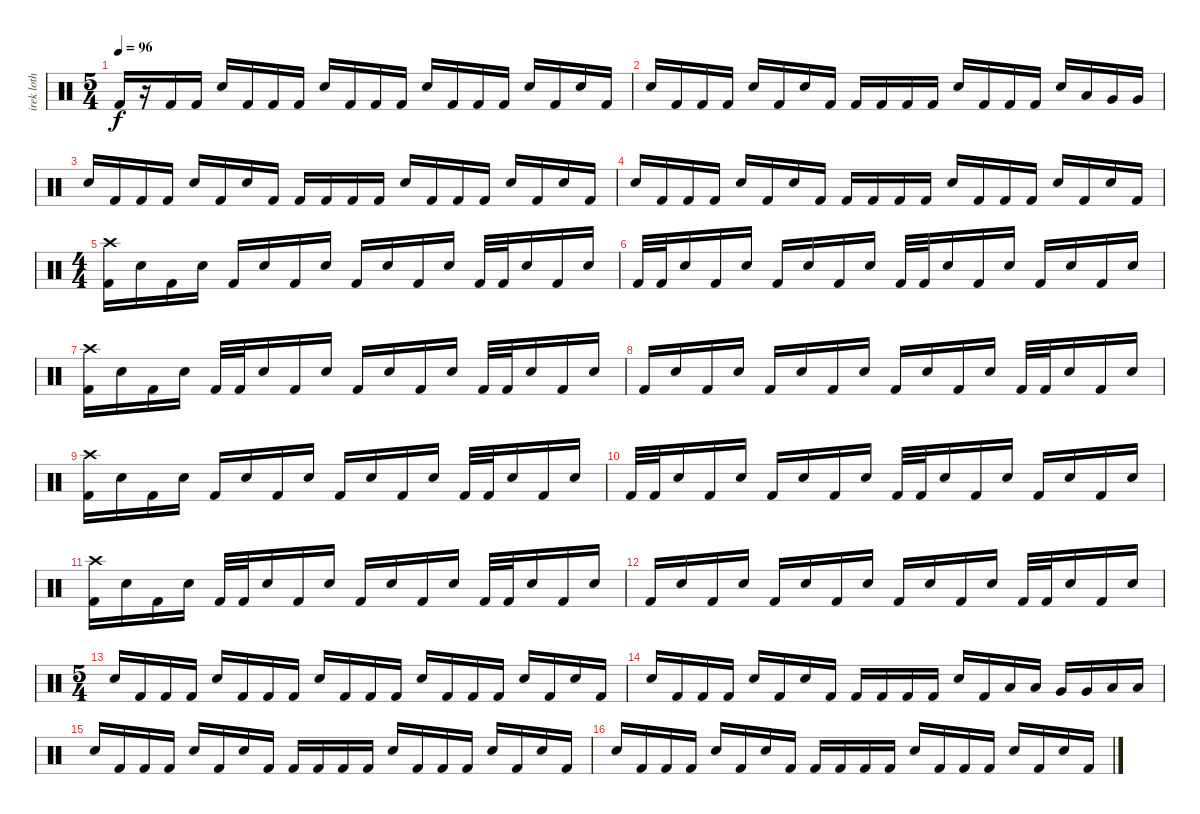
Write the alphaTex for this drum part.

\track ("irek loth" "irek loth") {instrument percussion}
\staff {score}
\articulation defaults
\ts (5 4)
\tempo 96
\clef neutral
\ks c "Kick (hit) 2".16{dy f}
r.16 "Kick (hit) 2".16 "Kick (hit) 2".16 "Snare (hit) 2".16 "Kick (hit) 2".16 "Kick (hit) 2".16 "Kick (hit) 2".16 "Snare (hit) 2".16 "Kick (hit) 2".16 "Kick (hit) 2".16 "Kick (hit) 2".16 "Snare (hit) 2".16 "Kick (hit) 2".16 "Kick (hit) 2".16 "Kick (hit) 2".16 "Snare (hit) 2".16 "Kick (hit) 2".16 "Snare (hit) 2".16 "Kick (hit) 2".16 |
"Snare (hit) 2".16 "Kick (hit) 2".16 "Kick (hit) 2".16 "Kick (hit) 2".16 "Snare (hit) 2".16 "Kick (hit) 2".16 "Snare (hit) 2".16 "Kick (hit) 2".16 "Kick (hit) 2".16 "Kick (hit) 2".16 "Kick (hit) 2".16 "Kick (hit) 2".16 "Snare (hit) 2".16 "Kick (hit) 2".16 "Kick (hit) 2".16 "Kick (hit) 2".16 "Snare (hit) 2".16 "Low Tom (hit)".16 "Very Low Tom (hit)".16 "Very Low Tom (hit)".16 |
"Snare (hit) 2".16 "Kick (hit) 2".16 "Kick (hit) 2".16 "Kick (hit) 2".16 "Snare (hit) 2".16 "Kick (hit) 2".16 "Snare (hit) 2".16 "Kick (hit) 2".16 "Kick (hit) 2".16 "Kick (hit) 2".16 "Kick (hit) 2".16 "Kick (hit) 2".16 "Snare (hit) 2".16 "Kick (hit) 2".16 "Kick (hit) 2".16 "Kick (hit) 2".16 "Snare (hit) 2".16 "Kick (hit) 2".16 "Snare (hit) 2".16 "Kick (hit) 2".16 |
"Snare (hit) 2".16 "Kick (hit) 2".16 "Kick (hit) 2".16 "Kick (hit) 2".16 "Snare (hit) 2".16 "Kick (hit) 2".16 "Snare (hit) 2".16 "Kick (hit) 2".16 "Kick (hit) 2".16 "Kick (hit) 2".16 "Kick (hit) 2".16 "Kick (hit) 2".16 "Snare (hit) 2".16 "Kick (hit) 2".16 "Kick (hit) 2".16 "Kick (hit) 2".16 "Snare (hit) 2".16 "Kick (hit) 2".16 "Snare (hit) 2".16 "Kick (hit) 2".16 |
\ts (4 4)
("Crash high (hit)" "Kick (hit) 2").16 "Snare (hit) 2".16 "Kick (hit) 2".16 "Snare (hit) 2".16 "Kick (hit) 2".16 "Snare (hit) 2".16 "Kick (hit) 2".16 "Snare (hit) 2".16 "Kick (hit) 2".16 "Snare (hit) 2".16 "Kick (hit) 2".16 "Snare (hit) 2".16 "Kick (hit) 2".32 "Kick (hit) 2".32 "Snare (hit) 2".16 "Kick (hit) 2".16 "Snare (hit) 2".16 |
"Kick (hit) 2".32 "Kick (hit) 2".32 "Snare (hit) 2".16 "Kick (hit) 2".16 "Snare (hit) 2".16 "Kick (hit) 2".16 "Snare (hit) 2".16 "Kick (hit) 2".16 "Snare (hit) 2".16 "Kick (hit) 2".32 "Kick (hit) 2".32 "Snare (hit) 2".16 "Kick (hit) 2".16 "Snare (hit) 2".16 "Kick (hit) 2".16 "Snare (hit) 2".16 "Kick (hit) 2".16 "Snare (hit) 2".16 |
("Crash high (hit)" "Kick (hit) 2").16 "Snare (hit) 2".16 "Kick (hit) 2".16 "Snare (hit) 2".16 "Kick (hit) 2".32 "Kick (hit) 2".32 "Snare (hit) 2".16 "Kick (hit) 2".16 "Snare (hit) 2".16 "Kick (hit) 2".16 "Snare (hit) 2".16 "Kick (hit) 2".16 "Snare (hit) 2".16 "Kick (hit) 2".32 "Kick (hit) 2".32 "Snare (hit) 2".16 "Kick (hit) 2".16 "Snare (hit) 2".16 |
"Kick (hit) 2".16 "Snare (hit) 2".16 "Kick (hit) 2".16 "Snare (hit) 2".16 "Kick (hit) 2".16 "Snare (hit) 2".16 "Kick (hit) 2".16 "Snare (hit) 2".16 "Kick (hit) 2".16 "Snare (hit) 2".16 "Kick (hit) 2".16 "Snare (hit) 2".16 "Kick (hit) 2".32 "Kick (hit) 2".32 "Snare (hit) 2".16 "Kick (hit) 2".16 "Snare (hit) 2".16 |
("Crash high (hit)" "Kick (hit) 2").16 "Snare (hit) 2".16 "Kick (hit) 2".16 "Snare (hit) 2".16 "Kick (hit) 2".16 "Snare (hit) 2".16 "Kick (hit) 2".16 "Snare (hit) 2".16 "Kick (hit) 2".16 "Snare (hit) 2".16 "Kick (hit) 2".16 "Snare (hit) 2".16 "Kick (hit) 2".32 "Kick (hit) 2".32 "Snare (hit) 2".16 "Kick (hit) 2".16 "Snare (hit) 2".16 |
"Kick (hit) 2".32 "Kick (hit) 2".32 "Snare (hit) 2".16 "Kick (hit) 2".16 "Snare (hit) 2".16 "Kick (hit) 2".16 "Snare (hit) 2".16 "Kick (hit) 2".16 "Snare (hit) 2".16 "Kick (hit) 2".32 "Kick (hit) 2".32 "Snare (hit) 2".16 "Kick (hit) 2".16 "Snare (hit) 2".16 "Kick (hit) 2".16 "Snare (hit) 2".16 "Kick (hit) 2".16 "Snare (hit) 2".16 |
("Crash high (hit)" "Kick (hit) 2").16 "Snare (hit) 2".16 "Kick (hit) 2".16 "Snare (hit) 2".16 "Kick (hit) 2".32 "Kick (hit) 2".32 "Snare (hit) 2".16 "Kick (hit) 2".16 "Snare (hit) 2".16 "Kick (hit) 2".16 "Snare (hit) 2".16 "Kick (hit) 2".16 "Snare (hit) 2".16 "Kick (hit) 2".32 "Kick (hit) 2".32 "Snare (hit) 2".16 "Kick (hit) 2".16 "Snare (hit) 2".16 |
"Kick (hit) 2".16 "Snare (hit) 2".16 "Kick (hit) 2".16 "Snare (hit) 2".16 "Kick (hit) 2".16 "Snare (hit) 2".16 "Kick (hit) 2".16 "Snare (hit) 2".16 "Kick (hit) 2".16 "Snare (hit) 2".16 "Kick (hit) 2".16 "Snare (hit) 2".16 "Kick (hit) 2".32 "Kick (hit) 2".32 "Snare (hit) 2".16 "Kick (hit) 2".16 "Snare (hit) 2".16 |
\ts (5 4)
"Snare (hit) 2".16 "Kick (hit) 2".16 "Kick (hit) 2".16 "Kick (hit) 2".16 "Snare (hit) 2".16 "Kick (hit) 2".16 "Kick (hit) 2".16 "Kick (hit) 2".16 "Snare (hit) 2".16 "Kick (hit) 2".16 "Kick (hit) 2".16 "Kick (hit) 2".16 "Snare (hit) 2".16 "Kick (hit) 2".16 "Kick (hit) 2".16 "Kick (hit) 2".16 "Snare (hit) 2".16 "Kick (hit) 2".16 "Snare (hit) 2".16 "Kick (hit) 2".16 |
"Snare (hit) 2".16 "Kick (hit) 2".16 "Kick (hit) 2".16 "Kick (hit) 2".16 "Snare (hit) 2".16 "Kick (hit) 2".16 "Snare (hit) 2".16 "Kick (hit) 2".16 "Kick (hit) 2".16 "Kick (hit) 2".16 "Kick (hit) 2".16 "Kick (hit) 2".16 "Snare (hit) 2".16 "Kick (hit) 2".16 "Low Tom (hit)".16 "Low Tom (hit)".16 "Very Low Tom (hit)".16 "Very Low Tom (hit)".16 "Low Floor Tom (hit)".16 "Low Floor Tom (hit)".16 |
"Snare (hit) 2".16 "Kick (hit) 2".16 "Kick (hit) 2".16 "Kick (hit) 2".16 "Snare (hit) 2".16 "Kick (hit) 2".16 "Snare (hit) 2".16 "Kick (hit) 2".16 "Kick (hit) 2".16 "Kick (hit) 2".16 "Kick (hit) 2".16 "Kick (hit) 2".16 "Snare (hit) 2".16 "Kick (hit) 2".16 "Kick (hit) 2".16 "Kick (hit) 2".16 "Snare (hit) 2".16 "Kick (hit) 2".16 "Snare (hit) 2".16 "Kick (hit) 2".16 |
"Snare (hit) 2".16 "Kick (hit) 2".16 "Kick (hit) 2".16 "Kick (hit) 2".16 "Snare (hit) 2".16 "Kick (hit) 2".16 "Snare (hit) 2".16 "Kick (hit) 2".16 "Kick (hit) 2".16 "Kick (hit) 2".16 "Kick (hit) 2".16 "Kick (hit) 2".16 "Snare (hit) 2".16 "Kick (hit) 2".16 "Kick (hit) 2".16 "Kick (hit) 2".16 "Snare (hit) 2".16 "Kick (hit) 2".16 "Snare (hit) 2".16 "Kick (hit) 2".16
